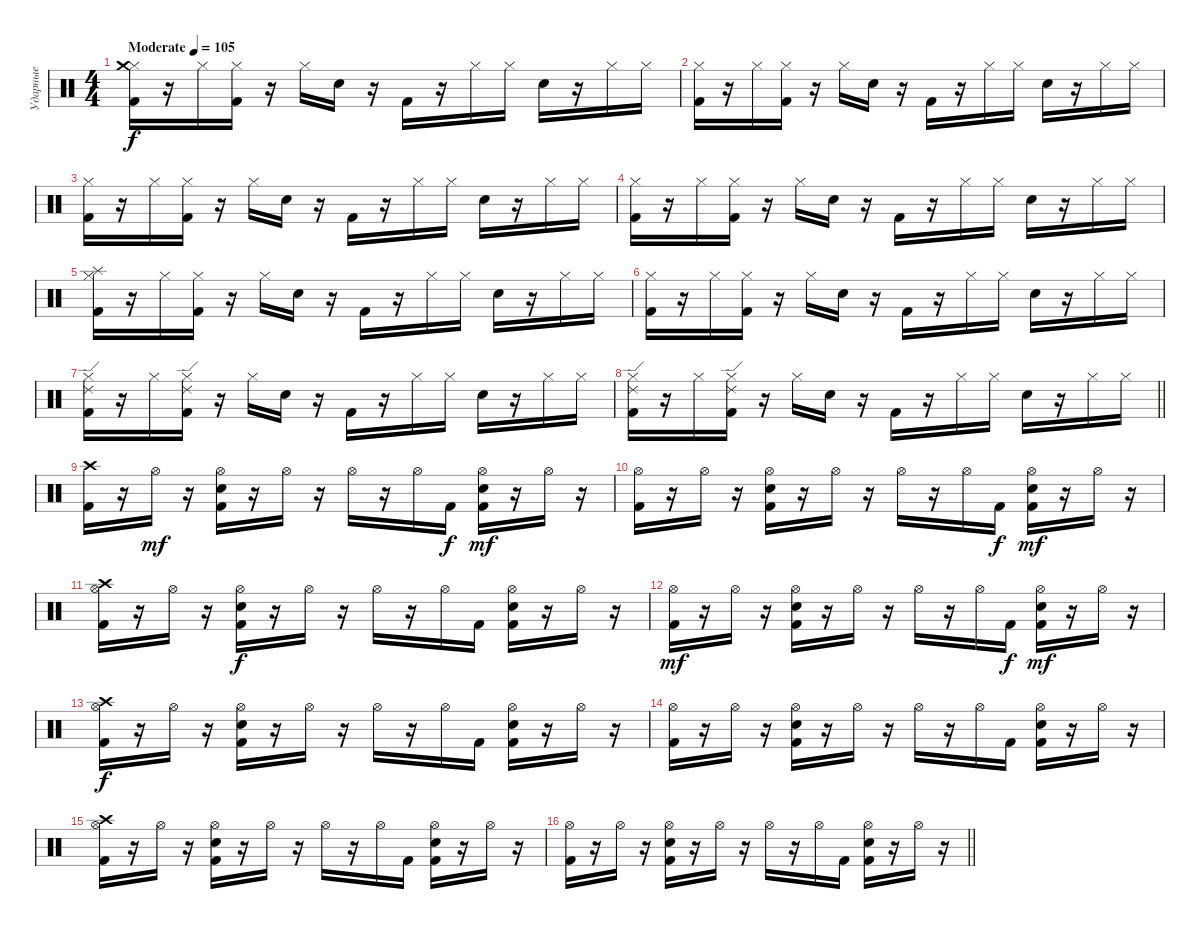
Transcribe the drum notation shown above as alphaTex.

\track ("Ударные" "Ударные") {instrument percussion}
\staff {score}
\articulation defaults
\ts (4 4)
\tempo (105 "Moderate")
\clef neutral
\ks c
("Hi-Hat (closed)" "Kick (hit) 2" "Crash medium (hit)").16{dy f} r.16 "Hi-Hat (closed)".16 ("Hi-Hat (closed)" "Kick (hit) 2").16 r.16 "Hi-Hat (closed)".16 "Electric Snare (hit)".16 r.16 "Kick (hit) 2".16 r.16 "Hi-Hat (closed)".16 "Hi-Hat (closed)".16 "Electric Snare (hit)".16 r.16 "Hi-Hat (closed)".16 "Hi-Hat (closed)".16 |
("Hi-Hat (closed)" "Kick (hit) 2").16 r.16 "Hi-Hat (closed)".16 ("Hi-Hat (closed)" "Kick (hit) 2").16 r.16 "Hi-Hat (closed)".16 "Electric Snare (hit)".16 r.16 "Kick (hit) 2".16 r.16 "Hi-Hat (closed)".16 "Hi-Hat (closed)".16 "Electric Snare (hit)".16 r.16 "Hi-Hat (closed)".16 "Hi-Hat (closed)".16 |
("Hi-Hat (closed)" "Kick (hit) 2").16 r.16 "Hi-Hat (closed)".16 ("Hi-Hat (closed)" "Kick (hit) 2").16 r.16 "Hi-Hat (closed)".16 "Electric Snare (hit)".16 r.16 "Kick (hit) 2".16 r.16 "Hi-Hat (closed)".16 "Hi-Hat (closed)".16 "Electric Snare (hit)".16 r.16 "Hi-Hat (closed)".16 "Hi-Hat (closed)".16 |
("Hi-Hat (closed)" "Kick (hit) 2").16 r.16 "Hi-Hat (closed)".16 ("Hi-Hat (closed)" "Kick (hit) 2").16 r.16 "Hi-Hat (closed)".16 "Electric Snare (hit)".16 r.16 "Kick (hit) 2".16 r.16 "Hi-Hat (closed)".16 "Hi-Hat (closed)".16 "Electric Snare (hit)".16 r.16 "Hi-Hat (closed)".16 "Hi-Hat (closed)".16 |
("Hi-Hat (closed)" "Kick (hit) 2" "Splash (hit)").16 r.16 "Hi-Hat (closed)".16 ("Hi-Hat (closed)" "Kick (hit) 2").16 r.16 "Hi-Hat (closed)".16 "Electric Snare (hit)".16 r.16 "Kick (hit) 2".16 r.16 "Hi-Hat (closed)".16 "Hi-Hat (closed)".16 "Electric Snare (hit)".16 r.16 "Hi-Hat (closed)".16 "Hi-Hat (closed)".16 |
("Hi-Hat (closed)" "Kick (hit) 2").16 r.16 "Hi-Hat (closed)".16 ("Hi-Hat (closed)" "Kick (hit) 2").16 r.16 "Hi-Hat (closed)".16 "Electric Snare (hit)".16 r.16 "Kick (hit) 2".16 r.16 "Hi-Hat (closed)".16 "Hi-Hat (closed)".16 "Electric Snare (hit)".16 r.16 "Hi-Hat (closed)".16 "Hi-Hat (closed)".16 |
("Hi-Hat (closed)" "Kick (hit) 2" "Ride (edge) 2").16 r.16 "Hi-Hat (closed)".16 ("Hi-Hat (closed)" "Kick (hit) 2" "Ride (edge) 2").16 r.16 "Hi-Hat (closed)".16 "Electric Snare (hit)".16 r.16 "Kick (hit) 2".16 r.16 "Hi-Hat (closed)".16 "Hi-Hat (closed)".16 "Electric Snare (hit)".16 r.16 "Hi-Hat (closed)".16 "Hi-Hat (closed)".16 |
\barLineRight lightlight
("Hi-Hat (closed)" "Kick (hit) 2" "Ride (edge) 2").16 r.16 "Hi-Hat (closed)".16 ("Hi-Hat (closed)" "Kick (hit) 2" "Ride (edge) 2").16 r.16 "Hi-Hat (closed)".16 "Electric Snare (hit)".16 r.16 "Kick (hit) 2".16 r.16 "Hi-Hat (closed)".16 "Hi-Hat (closed)".16 "Electric Snare (hit)".16 r.16 "Hi-Hat (closed)".16 "Hi-Hat (closed)".16 |
("Kick (hit) 2" "Crash high (hit)").16 r.16 "Hi-Hat (open)".16{dy mf} r.16 ("Hi-Hat (open)" "Kick (hit) 2" "Electric Snare (hit)").16 r.16 "Hi-Hat (open)".16 r.16 "Hi-Hat (open)".16 r.16 "Hi-Hat (open)".16 "Kick (hit) 2".16{dy f} ("Hi-Hat (open)" "Kick (hit) 2" "Electric Snare (hit)").16{dy mf} r.16 "Hi-Hat (open)".16 r.16 |
("Hi-Hat (open)" "Kick (hit) 2").16 r.16 "Hi-Hat (open)".16 r.16 ("Hi-Hat (open)" "Kick (hit) 2" "Electric Snare (hit)").16 r.16 "Hi-Hat (open)".16 r.16 "Hi-Hat (open)".16 r.16 "Hi-Hat (open)".16 "Kick (hit) 2".16{dy f} ("Hi-Hat (open)" "Kick (hit) 2" "Electric Snare (hit)").16{dy mf} r.16 "Hi-Hat (open)".16 r.16 |
("Hi-Hat (open)" "Kick (hit) 2" "Crash high (hit)").16 r.16 "Hi-Hat (open)".16 r.16 ("Hi-Hat (open)" "Kick (hit) 2" "Electric Snare (hit)").16{dy f} r.16 "Hi-Hat (open)".16 r.16 "Hi-Hat (open)".16 r.16 "Hi-Hat (open)".16 "Kick (hit) 2".16 ("Hi-Hat (open)" "Kick (hit) 2" "Electric Snare (hit)").16 r.16 "Hi-Hat (open)".16 r.16 |
("Hi-Hat (open)" "Kick (hit) 2").16{dy mf} r.16 "Hi-Hat (open)".16 r.16 ("Hi-Hat (open)" "Kick (hit) 2" "Electric Snare (hit)").16 r.16 "Hi-Hat (open)".16 r.16 "Hi-Hat (open)".16 r.16 "Hi-Hat (open)".16 "Kick (hit) 2".16{dy f} ("Hi-Hat (open)" "Kick (hit) 2" "Electric Snare (hit)").16{dy mf} r.16 "Hi-Hat (open)".16 r.16 |
("Hi-Hat (open)" "Kick (hit) 2" "Crash high (hit)").16{dy f} r.16 "Hi-Hat (open)".16 r.16 ("Hi-Hat (open)" "Kick (hit) 2" "Electric Snare (hit)").16 r.16 "Hi-Hat (open)".16 r.16 "Hi-Hat (open)".16 r.16 "Hi-Hat (open)".16 "Kick (hit) 2".16 ("Hi-Hat (open)" "Kick (hit) 2" "Electric Snare (hit)").16 r.16 "Hi-Hat (open)".16 r.16 |
("Hi-Hat (open)" "Kick (hit) 2").16 r.16 "Hi-Hat (open)".16 r.16 ("Hi-Hat (open)" "Kick (hit) 2" "Electric Snare (hit)").16 r.16 "Hi-Hat (open)".16 r.16 "Hi-Hat (open)".16 r.16 "Hi-Hat (open)".16 "Kick (hit) 2".16 ("Hi-Hat (open)" "Kick (hit) 2" "Electric Snare (hit)").16 r.16 "Hi-Hat (open)".16 r.16 |
("Hi-Hat (open)" "Kick (hit) 2" "Crash high (hit)").16 r.16 "Hi-Hat (open)".16 r.16 ("Hi-Hat (open)" "Kick (hit) 2" "Electric Snare (hit)").16 r.16 "Hi-Hat (open)".16 r.16 "Hi-Hat (open)".16 r.16 "Hi-Hat (open)".16 "Kick (hit) 2".16 ("Hi-Hat (open)" "Kick (hit) 2" "Electric Snare (hit)").16 r.16 "Hi-Hat (open)".16 r.16 |
\barLineRight lightlight
("Hi-Hat (open)" "Kick (hit) 2").16 r.16 "Hi-Hat (open)".16 r.16 ("Hi-Hat (open)" "Kick (hit) 2" "Electric Snare (hit)").16 r.16 "Hi-Hat (open)".16 r.16 "Hi-Hat (open)".16 r.16 "Hi-Hat (open)".16 "Kick (hit) 2".16 ("Hi-Hat (open)" "Kick (hit) 2" "Electric Snare (hit)").16 r.16 "Hi-Hat (open)".16 r.16
